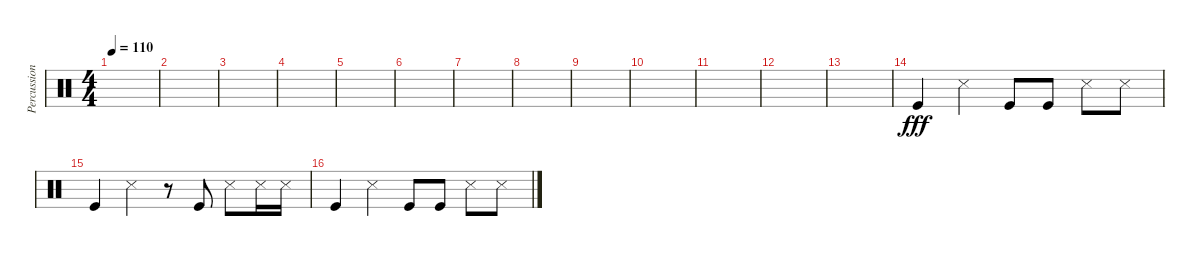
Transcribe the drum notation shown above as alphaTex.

\track ("Percussion" "Percussion") {instrument percussion}
\staff {score}
\articulation defaults
\ts (4 4)
\tempo 110
\clef neutral
\ks c
|
|
|
|
|
|
|
|
|
|
|
|
|
"Kick (hit)".4{dy fff} "Snare (side stick) 3".4 "Kick (hit)".8 "Kick (hit)".8 "Snare (side stick) 3".8 "Snare (side stick) 3".8 |
"Kick (hit)".4 "Snare (side stick) 3".4 r.8 "Kick (hit)".8 "Snare (side stick) 3".8 "Snare (side stick) 3".16 "Snare (side stick) 3".16 |
"Kick (hit)".4 "Snare (side stick) 3".4 "Kick (hit)".8 "Kick (hit)".8 "Snare (side stick) 3".8 "Snare (side stick) 3".8
